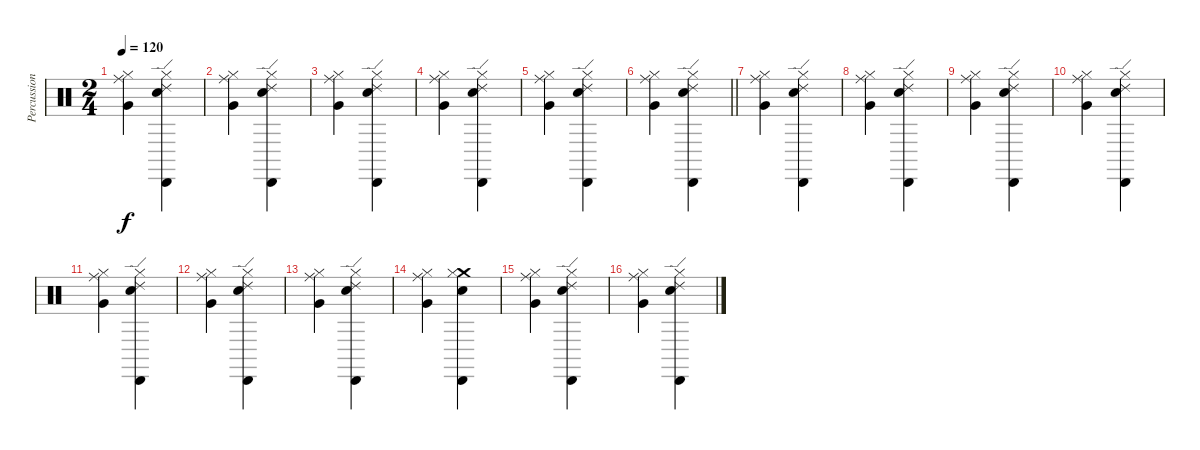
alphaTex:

\track ("Percussions" "Percussion") {instrument percussion}
\staff {score}
\articulation defaults
\ts (2 4)
\tempo 120
\clef neutral
\ks c
("Ride (middle)" "Hi-Hat (closed)" "Very Low Tom (hit)").4{dy f} ("Ride (edge) 2" "Cabasa (hit)" "Hi-Hat (closed)" "Electric Snare (hit)").4 |
("Ride (middle)" "Hi-Hat (closed)" "Very Low Tom (hit)").4 ("Ride (edge) 2" "Cabasa (hit)" "Hi-Hat (closed)" "Electric Snare (hit)").4 |
("Ride (middle)" "Hi-Hat (closed)" "Very Low Tom (hit)").4 ("Ride (edge) 2" "Cabasa (hit)" "Hi-Hat (closed)" "Electric Snare (hit)").4 |
("Ride (middle)" "Hi-Hat (closed)" "Very Low Tom (hit)").4 ("Ride (edge) 2" "Cabasa (hit)" "Hi-Hat (closed)" "Electric Snare (hit)").4 |
("Ride (middle)" "Hi-Hat (closed)" "Very Low Tom (hit)").4 ("Ride (edge) 2" "Cabasa (hit)" "Hi-Hat (closed)" "Electric Snare (hit)").4 |
\barLineRight lightlight
("Ride (middle)" "Hi-Hat (closed)" "Very Low Tom (hit)").4 ("Ride (edge) 2" "Cabasa (hit)" "Hi-Hat (closed)" "Electric Snare (hit)").4 |
("Ride (middle)" "Hi-Hat (closed)" "Very Low Tom (hit)").4 ("Ride (edge) 2" "Cabasa (hit)" "Hi-Hat (closed)" "Electric Snare (hit)").4 |
("Ride (middle)" "Hi-Hat (closed)" "Very Low Tom (hit)").4 ("Ride (edge) 2" "Cabasa (hit)" "Hi-Hat (closed)" "Electric Snare (hit)").4 |
("Ride (middle)" "Hi-Hat (closed)" "Very Low Tom (hit)").4 ("Ride (edge) 2" "Cabasa (hit)" "Hi-Hat (closed)" "Electric Snare (hit)").4 |
("Ride (middle)" "Hi-Hat (closed)" "Very Low Tom (hit)").4 ("Ride (edge) 2" "Cabasa (hit)" "Hi-Hat (closed)" "Electric Snare (hit)").4 |
("Ride (middle)" "Hi-Hat (closed)" "Very Low Tom (hit)").4 ("Ride (edge) 2" "Cabasa (hit)" "Hi-Hat (closed)" "Electric Snare (hit)").4 |
("Ride (middle)" "Hi-Hat (closed)" "Very Low Tom (hit)").4 ("Ride (edge) 2" "Cabasa (hit)" "Hi-Hat (closed)" "Electric Snare (hit)").4 |
("Ride (middle)" "Hi-Hat (closed)" "Very Low Tom (hit)").4 ("Ride (edge) 2" "Cabasa (hit)" "Hi-Hat (closed)" "Electric Snare (hit)").4 |
("Ride (middle)" "Hi-Hat (closed)" "Very Low Tom (hit)").4 ("Crash medium (hit)" "Cabasa (hit)" "Hi-Hat (closed)" "Electric Snare (hit)").4 |
("Ride (middle)" "Hi-Hat (closed)" "Very Low Tom (hit)").4 ("Ride (edge) 2" "Cabasa (hit)" "Hi-Hat (closed)" "Electric Snare (hit)").4 |
("Ride (middle)" "Hi-Hat (closed)" "Very Low Tom (hit)").4 ("Ride (edge) 2" "Cabasa (hit)" "Hi-Hat (closed)" "Electric Snare (hit)").4
